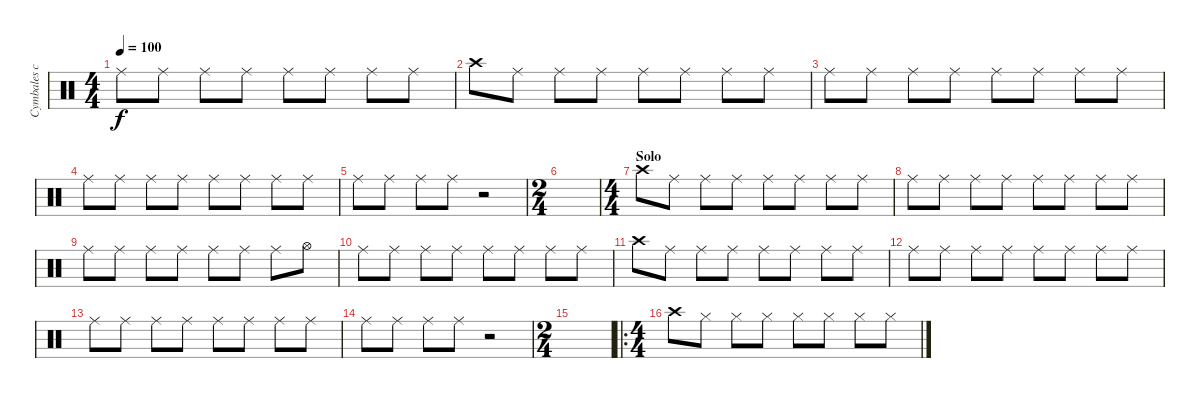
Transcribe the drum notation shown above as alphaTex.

\track ("Cymbales charlestone" "Cymbales c") {instrument percussion}
\staff {score}
\articulation defaults
\ts (4 4)
\tempo 100
\clef neutral
\ks c "Ride (middle)".8{dy f} "Ride (middle)".8 "Ride (middle)".8 "Ride (middle)".8 "Ride (middle)".8 "Ride (middle)".8 "Ride (middle)".8 "Ride (middle)".8
|
"Crash high (hit)".8 "Ride (middle)".8 "Ride (middle)".8 "Ride (middle)".8 "Ride (middle)".8 "Ride (middle)".8 "Ride (middle)".8 "Ride (middle)".8 |
"Ride (middle)".8 "Ride (middle)".8 "Ride (middle)".8 "Ride (middle)".8 "Ride (middle)".8 "Ride (middle)".8 "Ride (middle)".8 "Ride (middle)".8 |
"Ride (middle)".8 "Ride (middle)".8 "Ride (middle)".8 "Ride (middle)".8 "Ride (middle)".8 "Ride (middle)".8 "Ride (middle)".8 "Ride (middle)".8 |
"Ride (middle)".8 "Ride (middle)".8 "Ride (middle)".8 "Ride (middle)".8 r.2 |
\ts (2 4)
|
\ts (4 4)
\section ("" "Solo")
"Crash high (hit)".8 "Ride (middle)".8 "Ride (middle)".8 "Ride (middle)".8 "Ride (middle)".8 "Ride (middle)".8 "Ride (middle)".8 "Ride (middle)".8 |
"Ride (middle)".8 "Ride (middle)".8 "Ride (middle)".8 "Ride (middle)".8 "Ride (middle)".8 "Ride (middle)".8 "Ride (middle)".8 "Ride (middle)".8 |
"Ride (middle)".8 "Ride (middle)".8 "Ride (middle)".8 "Ride (middle)".8 "Ride (middle)".8 "Ride (middle)".8 "Ride (middle)".8 "Hi-Hat (open)".8 |
"Ride (middle)".8 "Ride (middle)".8 "Ride (middle)".8 "Ride (middle)".8 "Ride (middle)".8 "Ride (middle)".8 "Ride (middle)".8 "Ride (middle)".8 |
"Crash high (hit)".8 "Ride (middle)".8 "Ride (middle)".8 "Ride (middle)".8 "Ride (middle)".8 "Ride (middle)".8 "Ride (middle)".8 "Ride (middle)".8 |
"Ride (middle)".8 "Ride (middle)".8 "Ride (middle)".8 "Ride (middle)".8 "Ride (middle)".8 "Ride (middle)".8 "Ride (middle)".8 "Ride (middle)".8 |
"Ride (middle)".8 "Ride (middle)".8 "Ride (middle)".8 "Ride (middle)".8 "Ride (middle)".8 "Ride (middle)".8 "Ride (middle)".8 "Ride (middle)".8 |
"Ride (middle)".8 "Ride (middle)".8 "Ride (middle)".8 "Ride (middle)".8 r.2 |
\ts (2 4)
|
\ro
\ts (4 4)
"Crash high (hit)".8 "Hi-Hat (closed)".8 "Hi-Hat (closed)".8 "Hi-Hat (closed)".8 "Hi-Hat (closed)".8 "Hi-Hat (closed)".8 "Hi-Hat (closed)".8 "Hi-Hat (closed)".8
